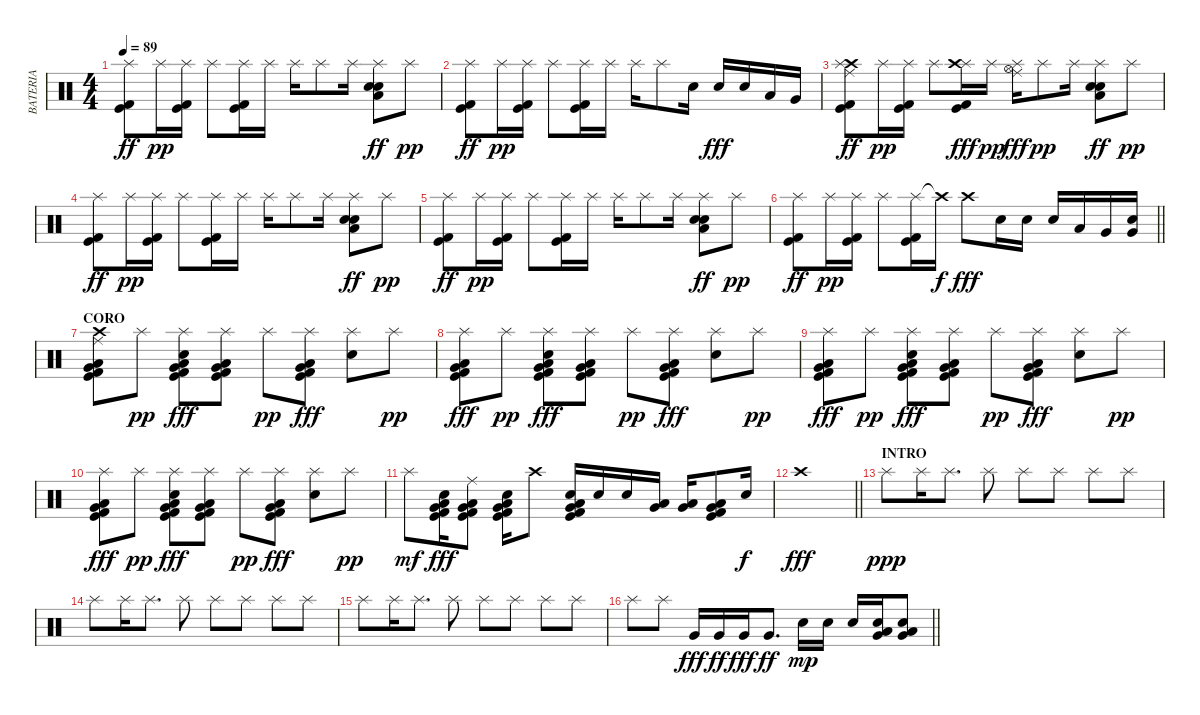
\track ("BATERIA" "BATERIA") {instrument percussion}
\staff {score}
\articulation defaults
\ts (4 4)
\tempo 89
\clef neutral
\ks c
("Splash (hit)" "Kick (hit)" "Kick (hit) 2").8{dy ff} "Splash (hit)".16{dy pp} ("Splash (hit)" "Kick (hit)" "Kick (hit) 2").16 "Splash (hit)".8 ("Splash (hit)" "Kick (hit)" "Kick (hit) 2").16 "Splash (hit)".16 "Splash (hit)".16 "Splash (hit)".8 "Splash (hit)".16 ("Splash (hit)" "Snare (hit) 2" "Snare (hit) 2" "Low Floor Tom (hit)").8{dy ff} "Splash (hit)".8{dy pp} |
("Splash (hit)" "Kick (hit)" "Kick (hit) 2").8{dy ff} "Splash (hit)".16{dy pp} ("Splash (hit)" "Kick (hit)" "Kick (hit) 2").16 "Splash (hit)".8 ("Splash (hit)" "Kick (hit)" "Kick (hit) 2").16 "Splash (hit)".16 "Splash (hit)".16 "Splash (hit)".8 "Snare (hit) 2".16 "Snare (hit) 2".16{dy fff} "Snare (hit) 2".16 "Low Floor Tom (hit)".16 "Very Low Tom (hit)".16 |
("Crash high (hit)" "Splash (hit)" "Ride (middle)" "Kick (hit)" "Kick (hit) 2").8{dy ff} "Splash (hit)".16{dy pp} ("Splash (hit)" "Kick (hit)" "Kick (hit) 2").16 "Splash (hit)".8 ("Splash (hit)" "Crash high (hit)" "Kick (hit)" "Kick (hit) 2").16{dy fff} "Splash (hit)".16{dy pp} ("Splash (hit)" "Hi-Hat (open)" "Ride (middle)").16{dy fff} "Splash (hit)".8{dy pp} "Splash (hit)".16 ("Splash (hit)" "Snare (hit) 2" "Snare (hit) 2" "Low Floor Tom (hit)").8{dy ff} "Splash (hit)".8{dy pp} |
("Splash (hit)" "Kick (hit)" "Kick (hit) 2").8{dy ff} "Splash (hit)".16{dy pp} ("Splash (hit)" "Kick (hit)" "Kick (hit) 2").16 "Splash (hit)".8 ("Splash (hit)" "Kick (hit)" "Kick (hit) 2").16 "Splash (hit)".16 "Splash (hit)".16 "Splash (hit)".8 "Splash (hit)".16 ("Splash (hit)" "Snare (hit) 2" "Snare (hit) 2" "Low Floor Tom (hit)").8{dy ff} "Splash (hit)".8{dy pp} |
("Splash (hit)" "Kick (hit)" "Kick (hit) 2").8{dy ff} "Splash (hit)".16{dy pp} ("Splash (hit)" "Kick (hit)" "Kick (hit) 2").16 "Splash (hit)".8 ("Splash (hit)" "Kick (hit)" "Kick (hit) 2").16 "Splash (hit)".16 "Splash (hit)".16 "Splash (hit)".8 "Splash (hit)".16 ("Splash (hit)" "Snare (hit) 2" "Snare (hit) 2" "Low Floor Tom (hit)").8{dy ff} "Splash (hit)".8{dy pp} |
\barLineRight lightlight
("Splash (hit)" "Kick (hit)" "Kick (hit) 2").8{dy ff} "Splash (hit)".16{dy pp} ("Splash (hit)" "Kick (hit)" "Kick (hit) 2").16 "Splash (hit)".8 ("Splash (hit)" "Kick (hit)" "Kick (hit) 2").16 "Crash high (hit)"{t}.16{dy f} "Crash high (hit)".8{dy fff} "Snare (hit) 2".16 "Snare (hit) 2".16 "Snare (hit) 2".16 "Low Floor Tom (hit)".16 "Very Low Tom (hit)".16 ("Very Low Tom (hit)" "Snare (hit) 2").16 |
\section ("" "CORO")
("Ride (middle)" "Crash high (hit)" "Kick (hit)" "Kick (hit) 2" "Low Floor Tom (hit)" "Very Low Tom (hit)").8 "Splash (hit)".8{dy pp} ("Splash (hit)" "Very Low Tom (hit)" "Kick (hit)" "Kick (hit) 2" "Low Floor Tom (hit)" "Snare (hit) 2").8{dy fff} ("Splash (hit)" "Very Low Tom (hit)" "Kick (hit)" "Kick (hit) 2" "Low Floor Tom (hit)").8 "Splash (hit)".8{dy pp} ("Splash (hit)" "Very Low Tom (hit)" "Kick (hit)" "Kick (hit) 2" "Low Floor Tom (hit)").8{dy fff} ("Splash (hit)" "Snare (hit) 2").8 "Splash (hit)".8{dy pp} |
("Splash (hit)" "Very Low Tom (hit)" "Kick (hit)" "Kick (hit) 2" "Low Floor Tom (hit)").8{dy fff} "Splash (hit)".8{dy pp} ("Splash (hit)" "Very Low Tom (hit)" "Kick (hit)" "Kick (hit) 2" "Low Floor Tom (hit)" "Snare (hit) 2").8{dy fff} ("Splash (hit)" "Very Low Tom (hit)" "Kick (hit)" "Kick (hit) 2" "Low Floor Tom (hit)").8 "Splash (hit)".8{dy pp} ("Splash (hit)" "Very Low Tom (hit)" "Kick (hit)" "Kick (hit) 2" "Low Floor Tom (hit)").8{dy fff} ("Splash (hit)" "Snare (hit) 2").8 "Splash (hit)".8{dy pp} |
("Splash (hit)" "Very Low Tom (hit)" "Kick (hit)" "Kick (hit) 2" "Low Floor Tom (hit)").8{dy fff} "Splash (hit)".8{dy pp} ("Splash (hit)" "Very Low Tom (hit)" "Kick (hit)" "Kick (hit) 2" "Low Floor Tom (hit)" "Snare (hit) 2").8{dy fff} ("Splash (hit)" "Very Low Tom (hit)" "Kick (hit)" "Kick (hit) 2" "Low Floor Tom (hit)").8 "Splash (hit)".8{dy pp} ("Splash (hit)" "Very Low Tom (hit)" "Kick (hit)" "Kick (hit) 2" "Low Floor Tom (hit)").8{dy fff} ("Splash (hit)" "Snare (hit) 2").8 "Splash (hit)".8{dy pp} |
("Splash (hit)" "Very Low Tom (hit)" "Kick (hit)" "Kick (hit) 2" "Low Floor Tom (hit)").8{dy fff} "Splash (hit)".8{dy pp} ("Splash (hit)" "Very Low Tom (hit)" "Kick (hit)" "Kick (hit) 2" "Low Floor Tom (hit)" "Snare (hit) 2").8{dy fff} ("Splash (hit)" "Very Low Tom (hit)" "Kick (hit)" "Kick (hit) 2" "Low Floor Tom (hit)").8 "Splash (hit)".8{dy pp} ("Splash (hit)" "Very Low Tom (hit)" "Kick (hit)" "Kick (hit) 2" "Low Floor Tom (hit)").8{dy fff} ("Splash (hit)" "Snare (hit) 2").8 "Splash (hit)".8{dy pp} |
"Splash (hit)".8{dy mf} ("Kick (hit)" "Kick (hit) 2" "Low Floor Tom (hit)" "Very Low Tom (hit)" "Snare (hit) 2").16{dy fff} ("Ride (middle)" "Kick (hit)" "Kick (hit) 2" "Low Floor Tom (hit)" "Very Low Tom (hit)").8 ("Kick (hit)" "Kick (hit) 2" "Low Floor Tom (hit)" "Very Low Tom (hit)" "Snare (hit) 2").16 "Crash high (hit)".8 ("Kick (hit)" "Kick (hit) 2" "Low Floor Tom (hit)" "Very Low Tom (hit)" "Snare (hit) 2").16 "Snare (hit) 2".16 "Snare (hit) 2".16 ("Very Low Tom (hit)" "Low Floor Tom (hit)").16 ("Very Low Tom (hit)" "Low Floor Tom (hit)").16 ("Kick (hit)" "Kick (hit) 2" "Low Floor Tom (hit)" "Very Low Tom (hit)").8 "Snare (hit) 2".16{dy f} |
\barLineRight lightlight "Crash high (hit)".1{dy fff}
|
\section ("" "INTRO")
"Splash (hit)".8{dy ppp} "Splash (hit)".16 "Splash (hit)".8{d} "Splash (hit)".8 "Splash (hit)".8 "Splash (hit)".8 "Splash (hit)".8 "Splash (hit)".8 |
"Splash (hit)".8 "Splash (hit)".16 "Splash (hit)".8{d} "Splash (hit)".8 "Splash (hit)".8 "Splash (hit)".8 "Splash (hit)".8 "Splash (hit)".8 |
"Splash (hit)".8 "Splash (hit)".16 "Splash (hit)".8{d} "Splash (hit)".8 "Splash (hit)".8 "Splash (hit)".8 "Splash (hit)".8 "Splash (hit)".8 |
\barLineRight lightlight "Splash (hit)".8 "Splash (hit)".8 "Very Low Tom (hit)".16{dy fff} "Very Low Tom (hit)".16{dy ff} "Very Low Tom (hit)".16{dy fff} "Very Low Tom (hit)".8{d dy ff} "Snare (hit) 2".16{dy mp} "Snare (hit) 2".16 "Snare (hit) 2".16
("Low Floor Tom (hit)" "Very Low Tom (hit)" "Snare (hit) 2").16 ("Low Floor Tom (hit)" "Very Low Tom (hit)" "Snare (hit) 2").8
